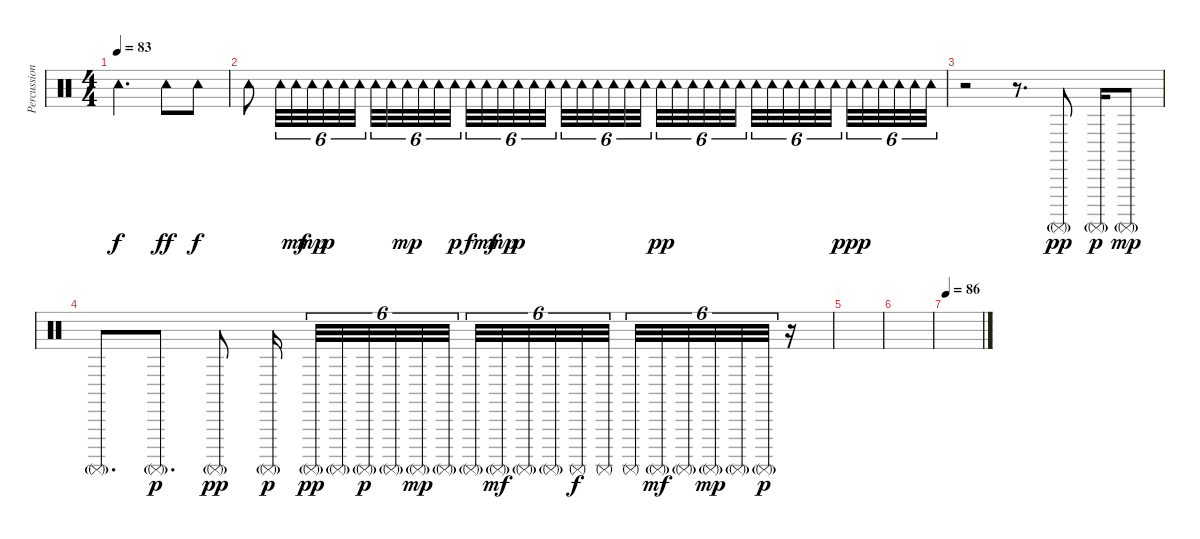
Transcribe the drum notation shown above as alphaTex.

\track ("Percussions" "Percussion") {instrument percussion}
\staff {score}
\articulation defaults
\ts (4 4)
\tempo 83
\clef neutral
\ks c "Tambourine (hit)".2{d dy f} "Tambourine (hit)".8{dy ff} "Tambourine (hit)".8{dy f}
|
"Tambourine (hit)".8 "Tambourine (hit)".32{tu (6 4)} "Tambourine (hit)".32{tu (6 4) dy mf} "Tambourine (hit)".32{tu (6 4) dy mp} "Tambourine (hit)".32{tu (6 4) dy p} "Tambourine (hit)".32{tu (6 4)} "Tambourine (hit)".32{tu (6 4)} "Tambourine (hit)".32{tu (6 4)} "Tambourine (hit)".32{tu (6 4)} "Tambourine (hit)".32{tu (6 4) dy mp} "Tambourine (hit)".32{tu (6 4)} "Tambourine (hit)".32{tu (6 4)} "Tambourine (hit)".32{tu (6 4) dy p} "Tambourine (hit)".32{tu (6 4) dy f} "Tambourine (hit)".32{tu (6 4) dy mf} "Tambourine (hit)".32{tu (6 4) dy mp} "Tambourine (hit)".32{tu (6 4) dy p} "Tambourine (hit)".32{tu (6 4)} "Tambourine (hit)".32{tu (6 4)} "Tambourine (hit)".32{tu (6 4)} "Tambourine (hit)".32{tu (6 4)} "Tambourine (hit)".32{tu (6 4)} "Tambourine (hit)".32{tu (6 4)} "Tambourine (hit)".32{tu (6 4)} "Tambourine (hit)".32{tu (6 4)} "Tambourine (hit)".32{tu (6 4) dy pp} "Tambourine (hit)".32{tu (6 4)} "Tambourine (hit)".32{tu (6 4)} "Tambourine (hit)".32{tu (6 4)} "Tambourine (hit)".32{tu (6 4)} "Tambourine (hit)".32{tu (6 4)} "Tambourine (hit)".32{tu (6 4)} "Tambourine (hit)".32{tu (6 4)} "Tambourine (hit)".32{tu (6 4)} "Tambourine (hit)".32{tu (6 4)} "Tambourine (hit)".32{tu (6 4)} "Tambourine (hit)".32{tu (6 4)} "Tambourine (hit)".32{tu (6 4) dy ppp} "Tambourine (hit)".32{tu (6 4)} "Tambourine (hit)".32{tu (6 4)} "Tambourine (hit)".32{tu (6 4)} "Tambourine (hit)".32{tu (6 4)} "Tambourine (hit)".32{tu (6 4)} |
r.2 r.8{d} "Surdo (mute)"{g}.8{dy pp} "Surdo (mute)"{g}.16{dy p} "Surdo (mute)"{g}.8{dy mp} |
"Surdo (mute)"{g}.8{d} "Surdo (mute)"{g}.8{d dy p} "Surdo (mute)"{g}.8{dy pp} "Surdo (mute)"{g}.16{dy p} "Surdo (mute)"{g}.32{tu (6 4) dy pp} "Surdo (mute)"{g}.32{tu (6 4)} "Surdo (mute)"{g}.32{tu (6 4) dy p} "Surdo (mute)"{g}.32{tu (6 4)} "Surdo (mute)"{g}.32{tu (6 4) dy mp} "Surdo (mute)"{g}.32{tu (6 4)} "Surdo (mute)"{g}.32{tu (6 4)} "Surdo (mute)"{g}.32{tu (6 4) dy mf} "Surdo (mute)"{g}.32{tu (6 4)} "Surdo (mute)"{g}.32{tu (6 4)} "Surdo (mute)".32{tu (6 4) dy f} "Surdo (mute)".32{tu (6 4)} "Surdo (mute)".32{tu (6 4)} "Surdo (mute)"{g}.32{tu (6 4) dy mf} "Surdo (mute)"{g}.32{tu (6 4)} "Surdo (mute)"{g}.32{tu (6 4) dy mp} "Surdo (mute)"{g}.32{tu (6 4)} "Surdo (mute)"{g}.32{tu (6 4) dy p} r.16 |
|
|
\tempo 86
